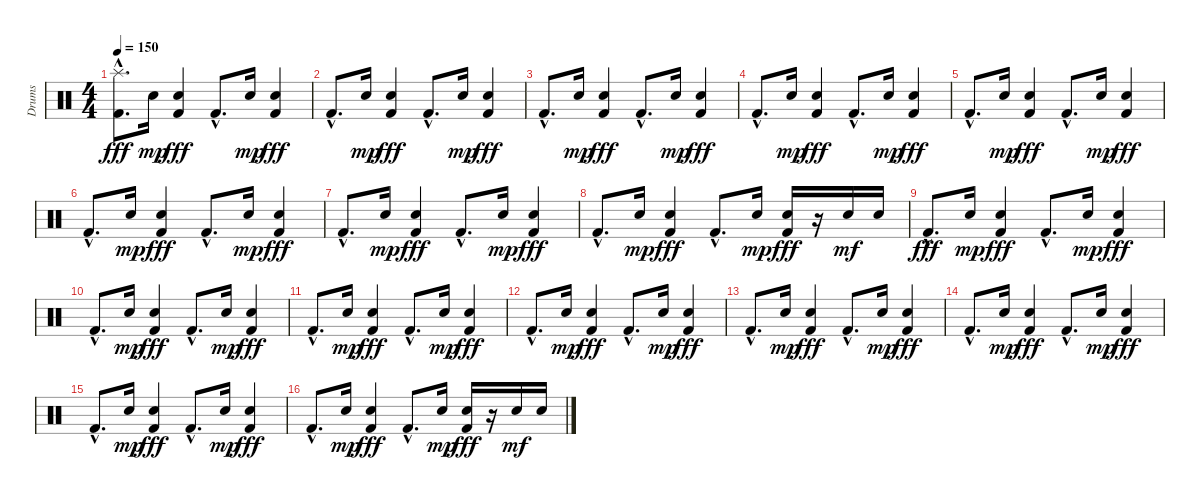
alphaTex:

\track ("Drums" "Drums") {instrument percussion}
\staff {score}
\articulation defaults
\ts (4 4)
\tempo 150
\clef neutral
\ks c
("Splash (hit)"{hac} "Kick (hit) 2"{hac}).8{d dy fff} "Snare (hit) 2".16{dy mp} ("Snare (hit) 2" "Kick (hit) 2").4{dy fff} "Kick (hit) 2"{hac}.8{d} "Snare (hit) 2".16{dy mp} ("Snare (hit) 2" "Kick (hit) 2").4{dy fff} |
"Kick (hit) 2"{hac}.8{d} "Snare (hit) 2".16{dy mp} ("Snare (hit) 2" "Kick (hit) 2").4{dy fff} "Kick (hit) 2"{hac}.8{d} "Snare (hit) 2".16{dy mp} ("Snare (hit) 2" "Kick (hit) 2").4{dy fff} |
"Kick (hit) 2"{hac}.8{d} "Snare (hit) 2".16{dy mp} ("Snare (hit) 2" "Kick (hit) 2").4{dy fff} "Kick (hit) 2"{hac}.8{d} "Snare (hit) 2".16{dy mp} ("Snare (hit) 2" "Kick (hit) 2").4{dy fff} |
"Kick (hit) 2"{hac}.8{d} "Snare (hit) 2".16{dy mp} ("Snare (hit) 2" "Kick (hit) 2").4{dy fff} "Kick (hit) 2"{hac}.8{d} "Snare (hit) 2".16{dy mp} ("Snare (hit) 2" "Kick (hit) 2").4{dy fff} |
"Kick (hit) 2"{hac}.8{d} "Snare (hit) 2".16{dy mp} ("Snare (hit) 2" "Kick (hit) 2").4{dy fff} "Kick (hit) 2"{hac}.8{d} "Snare (hit) 2".16{dy mp} ("Snare (hit) 2" "Kick (hit) 2").4{dy fff} |
"Kick (hit) 2"{hac}.8{d} "Snare (hit) 2".16{dy mp} ("Snare (hit) 2" "Kick (hit) 2").4{dy fff} "Kick (hit) 2"{hac}.8{d} "Snare (hit) 2".16{dy mp} ("Snare (hit) 2" "Kick (hit) 2").4{dy fff} |
"Kick (hit) 2"{hac}.8{d} "Snare (hit) 2".16{dy mp} ("Snare (hit) 2" "Kick (hit) 2").4{dy fff} "Kick (hit) 2"{hac}.8{d} "Snare (hit) 2".16{dy mp} ("Snare (hit) 2" "Kick (hit) 2").4{dy fff} |
"Kick (hit) 2"{hac}.8{d} "Snare (hit) 2".16{dy mp} ("Snare (hit) 2" "Kick (hit) 2").4{dy fff} "Kick (hit) 2"{hac}.8{d} "Snare (hit) 2".16{dy mp} ("Snare (hit) 2" "Kick (hit) 2").16{dy fff} r.16 "Snare (hit) 2".16{dy mf} "Snare (hit) 2".16 |
"Kick (hit) 2"{hac}.8{d dy fff} "Snare (hit) 2".16{dy mp} ("Snare (hit) 2" "Kick (hit) 2").4{dy fff} "Kick (hit) 2"{hac}.8{d} "Snare (hit) 2".16{dy mp} ("Snare (hit) 2" "Kick (hit) 2").4{dy fff} |
"Kick (hit) 2"{hac}.8{d} "Snare (hit) 2".16{dy mp} ("Snare (hit) 2" "Kick (hit) 2").4{dy fff} "Kick (hit) 2"{hac}.8{d} "Snare (hit) 2".16{dy mp} ("Snare (hit) 2" "Kick (hit) 2").4{dy fff} |
"Kick (hit) 2"{hac}.8{d} "Snare (hit) 2".16{dy mp} ("Snare (hit) 2" "Kick (hit) 2").4{dy fff} "Kick (hit) 2"{hac}.8{d} "Snare (hit) 2".16{dy mp} ("Snare (hit) 2" "Kick (hit) 2").4{dy fff} |
"Kick (hit) 2"{hac}.8{d} "Snare (hit) 2".16{dy mp} ("Snare (hit) 2" "Kick (hit) 2").4{dy fff} "Kick (hit) 2"{hac}.8{d} "Snare (hit) 2".16{dy mp} ("Snare (hit) 2" "Kick (hit) 2").4{dy fff} |
"Kick (hit) 2"{hac}.8{d} "Snare (hit) 2".16{dy mp} ("Snare (hit) 2" "Kick (hit) 2").4{dy fff} "Kick (hit) 2"{hac}.8{d} "Snare (hit) 2".16{dy mp} ("Snare (hit) 2" "Kick (hit) 2").4{dy fff} |
"Kick (hit) 2"{hac}.8{d} "Snare (hit) 2".16{dy mp} ("Snare (hit) 2" "Kick (hit) 2").4{dy fff} "Kick (hit) 2"{hac}.8{d} "Snare (hit) 2".16{dy mp} ("Snare (hit) 2" "Kick (hit) 2").4{dy fff} |
"Kick (hit) 2"{hac}.8{d} "Snare (hit) 2".16{dy mp} ("Snare (hit) 2" "Kick (hit) 2").4{dy fff} "Kick (hit) 2"{hac}.8{d} "Snare (hit) 2".16{dy mp} ("Snare (hit) 2" "Kick (hit) 2").4{dy fff} |
"Kick (hit) 2"{hac}.8{d} "Snare (hit) 2".16{dy mp} ("Snare (hit) 2" "Kick (hit) 2").4{dy fff} "Kick (hit) 2"{hac}.8{d} "Snare (hit) 2".16{dy mp} ("Snare (hit) 2" "Kick (hit) 2").16{dy fff} r.16 "Snare (hit) 2".16{dy mf} "Snare (hit) 2".16
